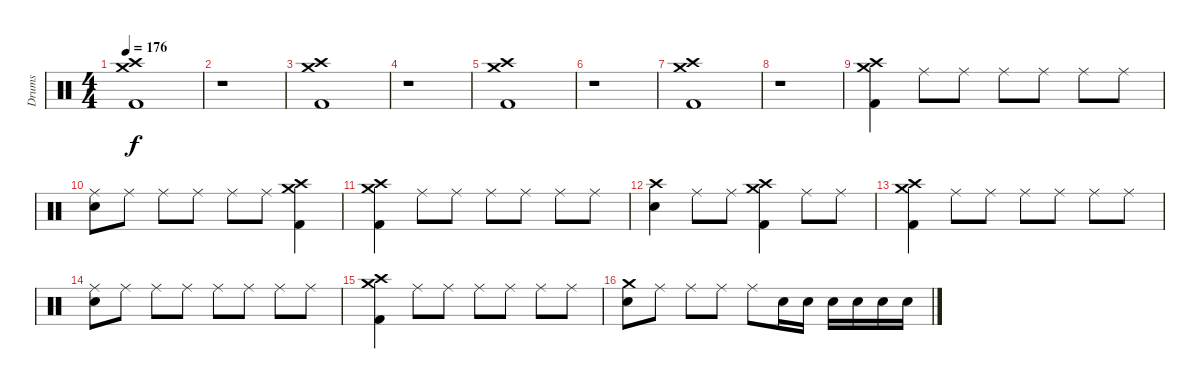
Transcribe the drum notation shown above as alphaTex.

\track ("Drums" "Drums") {instrument percussion}
\staff {score}
\articulation defaults
\ts (4 4)
\tempo 176
\clef neutral
\ks c
("Crash medium (hit)" "Crash high (hit)" "Kick (hit) 2").1{dy f} |
r.1 |
("Crash medium (hit)" "Crash high (hit)" "Kick (hit) 2").1 |
r.1 |
("Crash medium (hit)" "Crash high (hit)" "Kick (hit) 2").1 |
r.1 |
("Crash medium (hit)" "Crash high (hit)" "Kick (hit) 2").1 |
r.1 |
("Crash medium (hit)" "Crash high (hit)" "Kick (hit) 2").4 "Ride (middle)".8 "Ride (middle)".8 "Ride (middle)".8 "Ride (middle)".8 "Ride (middle)".8 "Ride (middle)".8 |
("Ride (middle)" "Electric Snare (hit)").8 "Ride (middle)".8 "Ride (middle)".8 "Ride (middle)".8 "Ride (middle)".8 "Ride (middle)".8 ("Crash medium (hit)" "Crash high (hit)" "Kick (hit) 2").4 |
("Crash medium (hit)" "Crash high (hit)" "Kick (hit) 2").4 "Ride (middle)".8 "Ride (middle)".8 "Ride (middle)".8 "Ride (middle)".8 "Ride (middle)".8 "Ride (middle)".8 |
("Crash high (hit)" "Electric Snare (hit)").4 "Ride (middle)".8 "Ride (middle)".8 ("Crash high (hit)" "Crash medium (hit)" "Kick (hit) 2").4 "Ride (middle)".8 "Ride (middle)".8 |
("Crash high (hit)" "Crash medium (hit)" "Kick (hit) 2").4 "Ride (middle)".8 "Ride (middle)".8 "Ride (middle)".8 "Ride (middle)".8 "Ride (middle)".8 "Ride (middle)".8 |
("Ride (middle)" "Electric Snare (hit)").8 "Ride (middle)".8 "Ride (middle)".8 "Ride (middle)".8 "Ride (middle)".8 "Ride (middle)".8 "Ride (middle)".8 "Ride (middle)".8 |
("Crash high (hit)" "Crash medium (hit)" "Kick (hit) 2").4 "Ride (middle)".8 "Ride (middle)".8 "Ride (middle)".8 "Ride (middle)".8 "Ride (middle)".8 "Ride (middle)".8 |
("Crash medium (hit)" "Electric Snare (hit)").8 "Ride (middle)".8 "Ride (middle)".8 "Ride (middle)".8 "Ride (middle)".8 "Electric Snare (hit)".16 "Electric Snare (hit)".16 "Electric Snare (hit)".16 "Electric Snare (hit)".16 "Electric Snare (hit)".16 "Electric Snare (hit)".16
